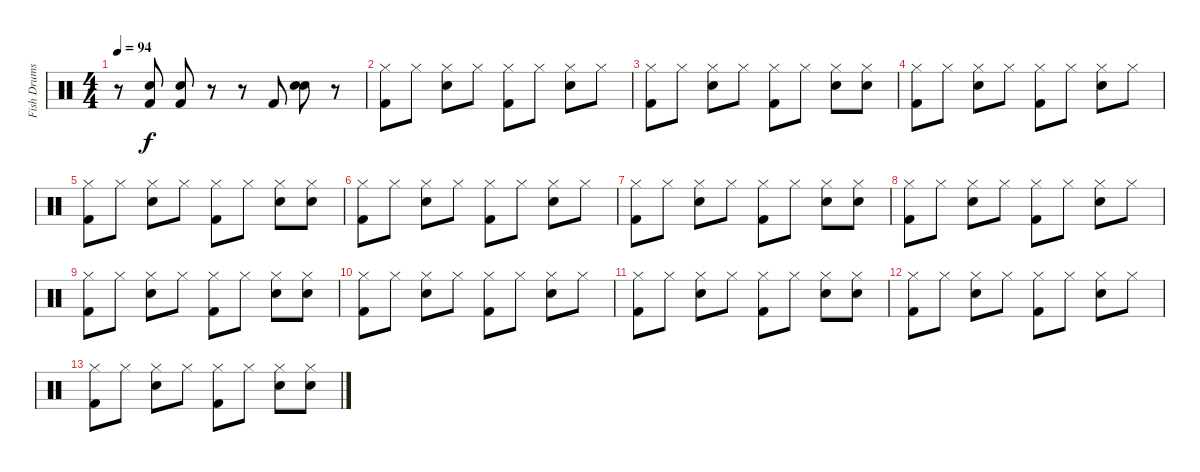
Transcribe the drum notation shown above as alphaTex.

\track ("Fish Drums" "Fish Drums") {instrument percussion}
\staff {score}
\articulation defaults
\ts (4 4)
\tempo 94
\clef neutral
\ks c
r.8{dy f} ("Snare (hit) 2" "Kick (hit) 2").8 ("Snare (hit) 2" "Kick (hit) 2").8 r.8 r.8 "Kick (hit) 2".8 ("Electric Snare (hit)" "Snare (hit) 2").8 r.8 |
("Hi-Hat (closed)" "Kick (hit) 2").8 "Hi-Hat (closed)".8 ("Hi-Hat (closed)" "Snare (hit) 2").8 "Hi-Hat (closed)".8 ("Hi-Hat (closed)" "Kick (hit) 2").8 "Hi-Hat (closed)".8 ("Hi-Hat (closed)" "Snare (hit) 2").8 "Hi-Hat (closed)".8 |
("Hi-Hat (closed)" "Kick (hit) 2").8 "Hi-Hat (closed)".8 ("Hi-Hat (closed)" "Snare (hit) 2").8 "Hi-Hat (closed)".8 ("Hi-Hat (closed)" "Kick (hit) 2").8 "Hi-Hat (closed)".8 ("Hi-Hat (closed)" "Snare (hit) 2").8 ("Hi-Hat (closed)" "Snare (hit) 2").8 |
("Hi-Hat (closed)" "Kick (hit) 2").8 "Hi-Hat (closed)".8 ("Hi-Hat (closed)" "Snare (hit) 2").8 "Hi-Hat (closed)".8 ("Hi-Hat (closed)" "Kick (hit) 2").8 "Hi-Hat (closed)".8 ("Hi-Hat (closed)" "Snare (hit) 2").8 "Hi-Hat (closed)".8 |
("Hi-Hat (closed)" "Kick (hit) 2").8 "Hi-Hat (closed)".8 ("Hi-Hat (closed)" "Snare (hit) 2").8 "Hi-Hat (closed)".8 ("Hi-Hat (closed)" "Kick (hit) 2").8 "Hi-Hat (closed)".8 ("Hi-Hat (closed)" "Snare (hit) 2").8 ("Hi-Hat (closed)" "Snare (hit) 2").8 |
("Hi-Hat (closed)" "Kick (hit) 2").8 "Hi-Hat (closed)".8 ("Hi-Hat (closed)" "Snare (hit) 2").8 "Hi-Hat (closed)".8 ("Hi-Hat (closed)" "Kick (hit) 2").8 "Hi-Hat (closed)".8 ("Hi-Hat (closed)" "Snare (hit) 2").8 "Hi-Hat (closed)".8 |
("Hi-Hat (closed)" "Kick (hit) 2").8 "Hi-Hat (closed)".8 ("Hi-Hat (closed)" "Snare (hit) 2").8 "Hi-Hat (closed)".8 ("Hi-Hat (closed)" "Kick (hit) 2").8 "Hi-Hat (closed)".8 ("Hi-Hat (closed)" "Snare (hit) 2").8 ("Hi-Hat (closed)" "Snare (hit) 2").8 |
("Hi-Hat (closed)" "Kick (hit) 2").8 "Hi-Hat (closed)".8 ("Hi-Hat (closed)" "Snare (hit) 2").8 "Hi-Hat (closed)".8 ("Hi-Hat (closed)" "Kick (hit) 2").8 "Hi-Hat (closed)".8 ("Hi-Hat (closed)" "Snare (hit) 2").8 "Hi-Hat (closed)".8 |
("Hi-Hat (closed)" "Kick (hit) 2").8 "Hi-Hat (closed)".8 ("Hi-Hat (closed)" "Snare (hit) 2").8 "Hi-Hat (closed)".8 ("Hi-Hat (closed)" "Kick (hit) 2").8 "Hi-Hat (closed)".8 ("Hi-Hat (closed)" "Snare (hit) 2").8 ("Hi-Hat (closed)" "Snare (hit) 2").8 |
("Hi-Hat (closed)" "Kick (hit) 2").8 "Hi-Hat (closed)".8 ("Hi-Hat (closed)" "Snare (hit) 2").8 "Hi-Hat (closed)".8 ("Hi-Hat (closed)" "Kick (hit) 2").8 "Hi-Hat (closed)".8 ("Hi-Hat (closed)" "Snare (hit) 2").8 "Hi-Hat (closed)".8 |
("Hi-Hat (closed)" "Kick (hit) 2").8 "Hi-Hat (closed)".8 ("Hi-Hat (closed)" "Snare (hit) 2").8 "Hi-Hat (closed)".8 ("Hi-Hat (closed)" "Kick (hit) 2").8 "Hi-Hat (closed)".8 ("Hi-Hat (closed)" "Snare (hit) 2").8 ("Hi-Hat (closed)" "Snare (hit) 2").8 |
("Hi-Hat (closed)" "Kick (hit) 2").8 "Hi-Hat (closed)".8 ("Hi-Hat (closed)" "Snare (hit) 2").8 "Hi-Hat (closed)".8 ("Hi-Hat (closed)" "Kick (hit) 2").8 "Hi-Hat (closed)".8 ("Hi-Hat (closed)" "Snare (hit) 2").8 "Hi-Hat (closed)".8 |
("Hi-Hat (closed)" "Kick (hit) 2").8 "Hi-Hat (closed)".8 ("Hi-Hat (closed)" "Snare (hit) 2").8 "Hi-Hat (closed)".8 ("Hi-Hat (closed)" "Kick (hit) 2").8 "Hi-Hat (closed)".8 ("Hi-Hat (closed)" "Snare (hit) 2").8 ("Hi-Hat (closed)" "Snare (hit) 2").8
